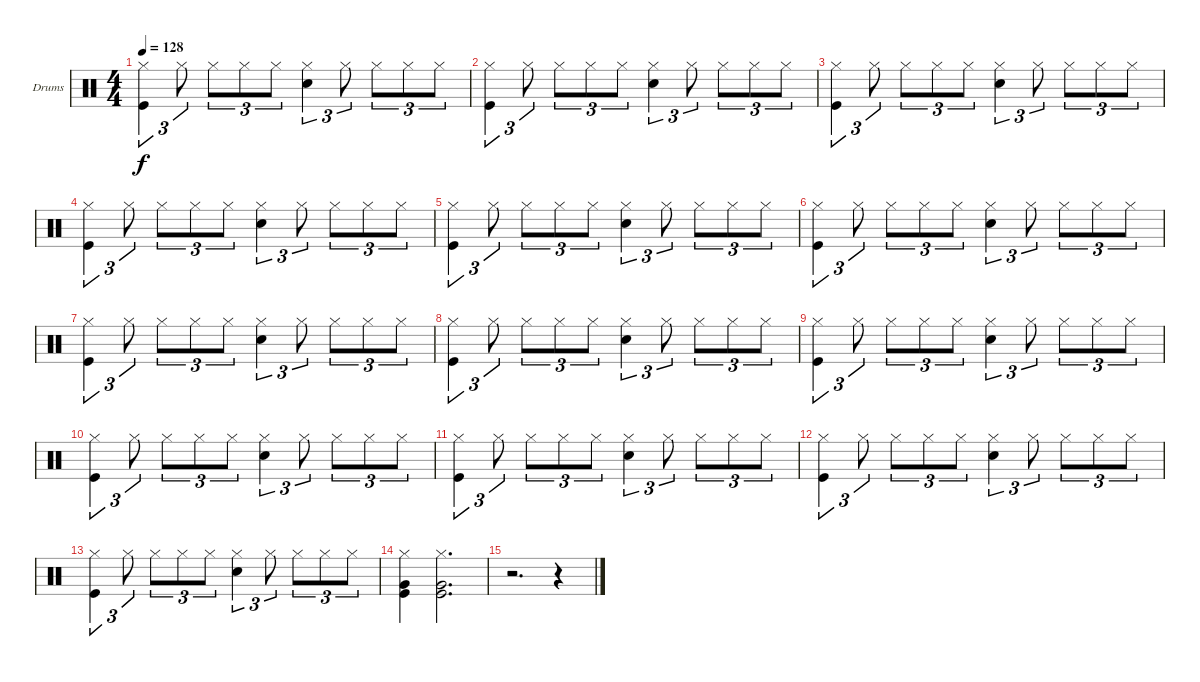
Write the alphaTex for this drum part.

\bracketExtendMode groupsimilarinstruments
\firstSystemTrackNameOrientation horizontal
\otherSystemsTrackNameOrientation horizontal
\track ("Drumkit" "Drums") {instrument percussion}
\staff {score}
\articulation defaults
\ts (4 4)
\tempo 128
\clef neutral
\ks c
("Hi-Hat (closed)" "Kick (hit)").4{tu (3 2) dy f} "Hi-Hat (closed)".8{tu (3 2)} "Hi-Hat (closed)".8{tu (3 2)} "Hi-Hat (closed)".8{tu (3 2)} "Hi-Hat (closed)".8{tu (3 2)} ("Hi-Hat (closed)" "Snare (hit) 2").4{tu (3 2)} "Hi-Hat (closed)".8{tu (3 2)} "Hi-Hat (closed)".8{tu (3 2)} "Hi-Hat (closed)".8{tu (3 2)} "Hi-Hat (closed)".8{tu (3 2)} |
("Hi-Hat (closed)" "Kick (hit)").4{tu (3 2)} "Hi-Hat (closed)".8{tu (3 2)} "Hi-Hat (closed)".8{tu (3 2)} "Hi-Hat (closed)".8{tu (3 2)} "Hi-Hat (closed)".8{tu (3 2)} ("Hi-Hat (closed)" "Snare (hit) 2").4{tu (3 2)} "Hi-Hat (closed)".8{tu (3 2)} "Hi-Hat (closed)".8{tu (3 2)} "Hi-Hat (closed)".8{tu (3 2)} "Hi-Hat (closed)".8{tu (3 2)} |
("Hi-Hat (closed)" "Kick (hit)").4{tu (3 2)} "Hi-Hat (closed)".8{tu (3 2)} "Hi-Hat (closed)".8{tu (3 2)} "Hi-Hat (closed)".8{tu (3 2)} "Hi-Hat (closed)".8{tu (3 2)} ("Hi-Hat (closed)" "Snare (hit) 2").4{tu (3 2)} "Hi-Hat (closed)".8{tu (3 2)} "Hi-Hat (closed)".8{tu (3 2)} "Hi-Hat (closed)".8{tu (3 2)} "Hi-Hat (closed)".8{tu (3 2)} |
("Hi-Hat (closed)" "Kick (hit)").4{tu (3 2)} "Hi-Hat (closed)".8{tu (3 2)} "Hi-Hat (closed)".8{tu (3 2)} "Hi-Hat (closed)".8{tu (3 2)} "Hi-Hat (closed)".8{tu (3 2)} ("Hi-Hat (closed)" "Snare (hit) 2").4{tu (3 2)} "Hi-Hat (closed)".8{tu (3 2)} "Hi-Hat (closed)".8{tu (3 2)} "Hi-Hat (closed)".8{tu (3 2)} "Hi-Hat (closed)".8{tu (3 2)} |
("Hi-Hat (closed)" "Kick (hit)").4{tu (3 2)} "Hi-Hat (closed)".8{tu (3 2)} "Hi-Hat (closed)".8{tu (3 2)} "Hi-Hat (closed)".8{tu (3 2)} "Hi-Hat (closed)".8{tu (3 2)} ("Hi-Hat (closed)" "Snare (hit) 2").4{tu (3 2)} "Hi-Hat (closed)".8{tu (3 2)} "Hi-Hat (closed)".8{tu (3 2)} "Hi-Hat (closed)".8{tu (3 2)} "Hi-Hat (closed)".8{tu (3 2)} |
("Hi-Hat (closed)" "Kick (hit)").4{tu (3 2)} "Hi-Hat (closed)".8{tu (3 2)} "Hi-Hat (closed)".8{tu (3 2)} "Hi-Hat (closed)".8{tu (3 2)} "Hi-Hat (closed)".8{tu (3 2)} ("Hi-Hat (closed)" "Snare (hit) 2").4{tu (3 2)} "Hi-Hat (closed)".8{tu (3 2)} "Hi-Hat (closed)".8{tu (3 2)} "Hi-Hat (closed)".8{tu (3 2)} "Hi-Hat (closed)".8{tu (3 2)} |
("Hi-Hat (closed)" "Kick (hit)").4{tu (3 2)} "Hi-Hat (closed)".8{tu (3 2)} "Hi-Hat (closed)".8{tu (3 2)} "Hi-Hat (closed)".8{tu (3 2)} "Hi-Hat (closed)".8{tu (3 2)} ("Hi-Hat (closed)" "Snare (hit) 2").4{tu (3 2)} "Hi-Hat (closed)".8{tu (3 2)} "Hi-Hat (closed)".8{tu (3 2)} "Hi-Hat (closed)".8{tu (3 2)} "Hi-Hat (closed)".8{tu (3 2)} |
("Hi-Hat (closed)" "Kick (hit)").4{tu (3 2)} "Hi-Hat (closed)".8{tu (3 2)} "Hi-Hat (closed)".8{tu (3 2)} "Hi-Hat (closed)".8{tu (3 2)} "Hi-Hat (closed)".8{tu (3 2)} ("Hi-Hat (closed)" "Snare (hit) 2").4{tu (3 2)} "Hi-Hat (closed)".8{tu (3 2)} "Hi-Hat (closed)".8{tu (3 2)} "Hi-Hat (closed)".8{tu (3 2)} "Hi-Hat (closed)".8{tu (3 2)} |
("Hi-Hat (closed)" "Kick (hit)").4{tu (3 2)} "Hi-Hat (closed)".8{tu (3 2)} "Hi-Hat (closed)".8{tu (3 2)} "Hi-Hat (closed)".8{tu (3 2)} "Hi-Hat (closed)".8{tu (3 2)} ("Hi-Hat (closed)" "Snare (hit) 2").4{tu (3 2)} "Hi-Hat (closed)".8{tu (3 2)} "Hi-Hat (closed)".8{tu (3 2)} "Hi-Hat (closed)".8{tu (3 2)} "Hi-Hat (closed)".8{tu (3 2)} |
("Hi-Hat (closed)" "Kick (hit)").4{tu (3 2)} "Hi-Hat (closed)".8{tu (3 2)} "Hi-Hat (closed)".8{tu (3 2)} "Hi-Hat (closed)".8{tu (3 2)} "Hi-Hat (closed)".8{tu (3 2)} ("Hi-Hat (closed)" "Snare (hit) 2").4{tu (3 2)} "Hi-Hat (closed)".8{tu (3 2)} "Hi-Hat (closed)".8{tu (3 2)} "Hi-Hat (closed)".8{tu (3 2)} "Hi-Hat (closed)".8{tu (3 2)} |
("Hi-Hat (closed)" "Kick (hit)").4{tu (3 2)} "Hi-Hat (closed)".8{tu (3 2)} "Hi-Hat (closed)".8{tu (3 2)} "Hi-Hat (closed)".8{tu (3 2)} "Hi-Hat (closed)".8{tu (3 2)} ("Hi-Hat (closed)" "Snare (hit) 2").4{tu (3 2)} "Hi-Hat (closed)".8{tu (3 2)} "Hi-Hat (closed)".8{tu (3 2)} "Hi-Hat (closed)".8{tu (3 2)} "Hi-Hat (closed)".8{tu (3 2)} |
("Hi-Hat (closed)" "Kick (hit)").4{tu (3 2)} "Hi-Hat (closed)".8{tu (3 2)} "Hi-Hat (closed)".8{tu (3 2)} "Hi-Hat (closed)".8{tu (3 2)} "Hi-Hat (closed)".8{tu (3 2)} ("Hi-Hat (closed)" "Snare (hit) 2").4{tu (3 2)} "Hi-Hat (closed)".8{tu (3 2)} "Hi-Hat (closed)".8{tu (3 2)} "Hi-Hat (closed)".8{tu (3 2)} "Hi-Hat (closed)".8{tu (3 2)} |
("Hi-Hat (closed)" "Kick (hit)").4{tu (3 2)} "Hi-Hat (closed)".8{tu (3 2)} "Hi-Hat (closed)".8{tu (3 2)} "Hi-Hat (closed)".8{tu (3 2)} "Hi-Hat (closed)".8{tu (3 2)} ("Hi-Hat (closed)" "Snare (hit) 2").4{tu (3 2)} "Hi-Hat (closed)".8{tu (3 2)} "Hi-Hat (closed)".8{tu (3 2)} "Hi-Hat (closed)".8{tu (3 2)} "Hi-Hat (closed)".8{tu (3 2)} |
("Hi-Hat (closed)" "Very Low Tom (hit)" "Kick (hit)").4 ("Hi-Hat (closed)" "Very Low Tom (hit)" "Kick (hit)").2{d} |
r.2{d} r.4
